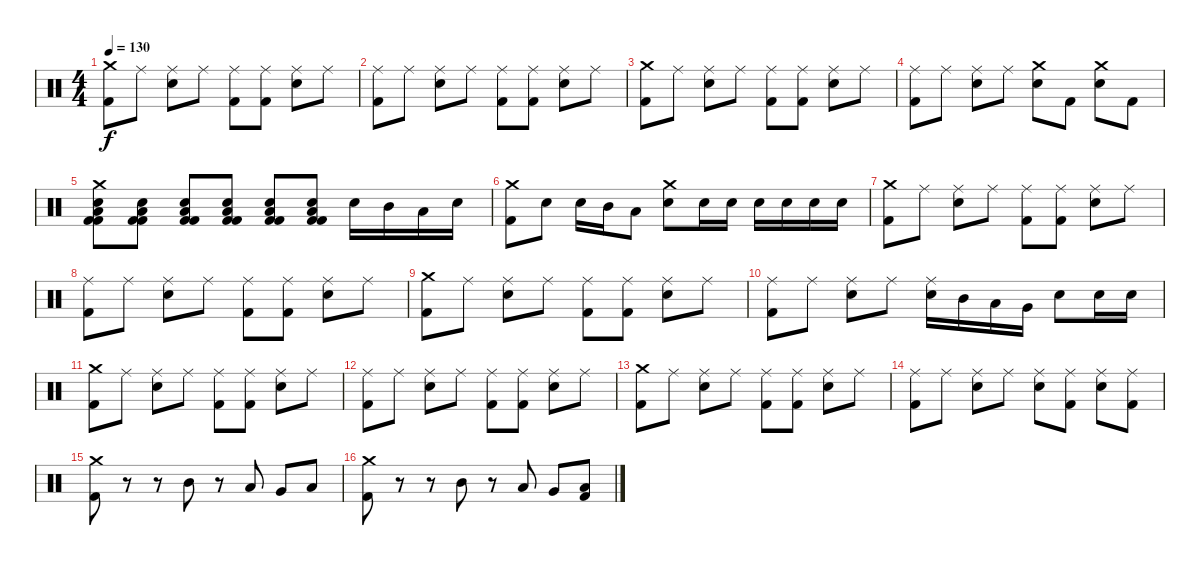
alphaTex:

\track "" {instrument percussion}
\staff {score}
\articulation defaults
\ts (4 4)
\tempo 130
\clef neutral
\ks c
("Crash medium (hit)" "Kick (hit) 2").8{dy f} "Ride (middle)".8 ("Ride (middle)" "Electric Snare (hit)").8 "Ride (middle)".8 ("Ride (middle)" "Kick (hit) 2").8 ("Ride (middle)" "Kick (hit) 2").8 ("Ride (middle)" "Electric Snare (hit)").8 "Ride (middle)".8 |
("Ride (middle)" "Kick (hit) 2").8 "Ride (middle)".8 ("Ride (middle)" "Electric Snare (hit)").8 "Ride (middle)".8 ("Ride (middle)" "Kick (hit) 2").8 ("Ride (middle)" "Kick (hit) 2").8 ("Ride (middle)" "Electric Snare (hit)").8 "Ride (middle)".8 |
("Crash medium (hit)" "Kick (hit) 2").8 "Ride (middle)".8 ("Ride (middle)" "Electric Snare (hit)").8 "Ride (middle)".8 ("Ride (middle)" "Kick (hit) 2").8 ("Ride (middle)" "Kick (hit) 2").8 ("Ride (middle)" "Electric Snare (hit)").8 "Ride (middle)".8 |
("Ride (middle)" "Kick (hit) 2").8 "Ride (middle)".8 ("Ride (middle)" "Electric Snare (hit)").8 "Ride (middle)".8 ("Crash medium (hit)" "Electric Snare (hit)").8 "Kick (hit) 2".8 ("Crash medium (hit)" "Electric Snare (hit)").8 "Kick (hit) 2".8{volume 10} |
("Crash medium (hit)" "Kick (hit) 2" "Electric Snare (hit)" "Low Tom (hit)" "Kick (hit) 2").8{volume 16} ("Kick (hit) 2" "Electric Snare (hit)" "Low Tom (hit)" "Kick (hit) 2").8 ("Kick (hit) 2" "Electric Snare (hit)" "Low Tom (hit)" "Kick (hit) 2").8 ("Kick (hit) 2" "Electric Snare (hit)" "Low Tom (hit)" "Kick (hit) 2").8 ("Kick (hit) 2" "Electric Snare (hit)" "Low Tom (hit)" "Kick (hit) 2").8 ("Kick (hit) 2" "Electric Snare (hit)" "Low Tom (hit)" "Kick (hit) 2").8 "Electric Snare (hit)".16 "Mid Tom (hit)".16 "Low Tom (hit)".16 "Electric Snare (hit)".16 |
("Crash medium (hit)" "Kick (hit) 2").8 "Electric Snare (hit)".8 "Electric Snare (hit)".16 "Mid Tom (hit)".16 "Low Tom (hit)".8 ("Crash medium (hit)" "Electric Snare (hit)").8 "Electric Snare (hit)".16 "Electric Snare (hit)".16 "Electric Snare (hit)".16 "Electric Snare (hit)".16 "Electric Snare (hit)".16 "Electric Snare (hit)".16 |
("Crash medium (hit)" "Kick (hit) 2").8 "Ride (middle)".8 ("Ride (middle)" "Electric Snare (hit)").8 "Ride (middle)".8 ("Ride (middle)" "Kick (hit) 2").8 ("Ride (middle)" "Kick (hit) 2").8 ("Ride (middle)" "Electric Snare (hit)").8 "Ride (middle)".8 |
("Ride (middle)" "Kick (hit) 2").8 "Ride (middle)".8 ("Ride (middle)" "Electric Snare (hit)").8 "Ride (middle)".8 ("Ride (middle)" "Kick (hit) 2").8 ("Ride (middle)" "Kick (hit) 2").8 ("Ride (middle)" "Electric Snare (hit)").8 "Ride (middle)".8 |
("Crash medium (hit)" "Kick (hit) 2").8 "Ride (middle)".8 ("Ride (middle)" "Electric Snare (hit)").8 "Ride (middle)".8 ("Ride (middle)" "Kick (hit) 2").8 ("Ride (middle)" "Kick (hit) 2").8 ("Ride (middle)" "Electric Snare (hit)").8 "Ride (middle)".8 |
("Ride (middle)" "Kick (hit) 2").8 "Ride (middle)".8 ("Ride (middle)" "Electric Snare (hit)").8 "Ride (middle)".8 ("Ride (middle)" "Electric Snare (hit)").16 "Mid Tom (hit)".16 "Low Tom (hit)".16 "Very Low Tom (hit)".16 "Electric Snare (hit)".8 "Electric Snare (hit)".16 "Electric Snare (hit)".16 |
("Crash medium (hit)" "Kick (hit) 2").8 "Ride (middle)".8 ("Ride (middle)" "Electric Snare (hit)").8 "Ride (middle)".8 ("Ride (middle)" "Kick (hit) 2").8 ("Ride (middle)" "Kick (hit) 2").8 ("Ride (middle)" "Electric Snare (hit)").8 "Ride (middle)".8 |
("Ride (middle)" "Kick (hit) 2").8 "Ride (middle)".8 ("Ride (middle)" "Electric Snare (hit)").8 "Ride (middle)".8 ("Ride (middle)" "Kick (hit) 2").8 ("Ride (middle)" "Kick (hit) 2").8 ("Ride (middle)" "Electric Snare (hit)").8 "Ride (middle)".8 |
("Crash medium (hit)" "Kick (hit) 2").8 "Ride (middle)".8 ("Ride (middle)" "Electric Snare (hit)").8 "Ride (middle)".8 ("Ride (middle)" "Kick (hit) 2").8 ("Ride (middle)" "Kick (hit) 2").8 ("Ride (middle)" "Electric Snare (hit)").8 "Ride (middle)".8 |
("Ride (middle)" "Kick (hit) 2").8 "Ride (middle)".8 ("Ride (middle)" "Electric Snare (hit)").8 "Ride (middle)".8 ("Ride (middle)" "Electric Snare (hit)").8 ("Ride (middle)" "Kick (hit) 2").8 ("Ride (middle)" "Electric Snare (hit)").8 ("Ride (middle)" "Kick (hit) 2").8 |
("Crash medium (hit)" "Kick (hit) 2").8 r.8 r.8 "Mid Tom (hit)".8 r.8 "Low Tom (hit)".8 "Very Low Tom (hit)".8 "Low Floor Tom (hit)".8 |
("Crash medium (hit)" "Kick (hit) 2").8 r.8 r.8 "Mid Tom (hit)".8 r.8 "Low Tom (hit)".8 "Very Low Tom (hit)".8 ("Low Floor Tom (hit)" "Kick (hit) 2").8
